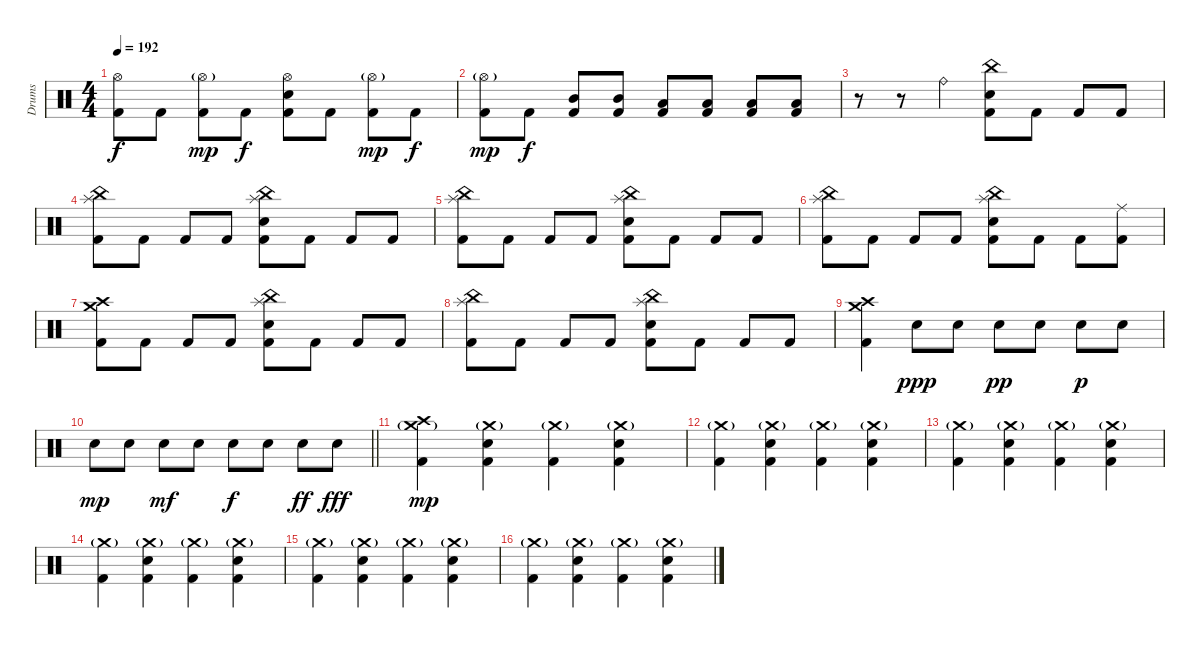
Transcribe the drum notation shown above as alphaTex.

\track ("Drums" "Drums") {instrument percussion}
\staff {score}
\articulation defaults
\ts (4 4)
\tempo 192
\clef neutral
\ks c
("Hi-Hat (open)" "Kick (hit) 2").8{dy f} "Kick (hit) 2".8 ("Hi-Hat (open)"{g} "Kick (hit) 2").8{dy mp} "Kick (hit) 2".8{dy f} ("Hi-Hat (open)" "Electric Snare (hit)" "Kick (hit) 2").8 "Kick (hit) 2".8 ("Hi-Hat (open)"{g} "Kick (hit) 2").8{dy mp} "Kick (hit) 2".8{dy f} |
("Hi-Hat (open)"{g} "Kick (hit) 2").8{dy mp} "Kick (hit) 2".8{dy f} ("Mid Tom (hit)" "Kick (hit) 2").8 ("Mid Tom (hit)" "Kick (hit) 2").8 ("Low Tom (hit)" "Kick (hit) 2").8 ("Low Tom (hit)" "Kick (hit) 2").8 ("Low Floor Tom (hit)" "Kick (hit) 2").8 ("Low Floor Tom (hit)" "Kick (hit) 2").8 |
r.8 r.8 "Ride (bell)".4 ("China (hit)" "Electric Snare (hit)" "Kick (hit) 2").8 "Kick (hit) 2".8 "Kick (hit) 2".8 "Kick (hit) 2".8 |
("China (hit)" "Splash (hit)" "Kick (hit) 2").8 "Kick (hit) 2".8 "Kick (hit) 2".8 "Kick (hit) 2".8 ("China (hit)" "Splash (hit)" "Electric Snare (hit)" "Kick (hit) 2").8 "Kick (hit) 2".8 "Kick (hit) 2".8 "Kick (hit) 2".8 |
("China (hit)" "Splash (hit)" "Kick (hit) 2").8 "Kick (hit) 2".8 "Kick (hit) 2".8 "Kick (hit) 2".8 ("China (hit)" "Splash (hit)" "Electric Snare (hit)" "Kick (hit) 2").8 "Kick (hit) 2".8 "Kick (hit) 2".8 "Kick (hit) 2".8 |
("China (hit)" "Splash (hit)" "Kick (hit) 2").8 "Kick (hit) 2".8 "Kick (hit) 2".8 "Kick (hit) 2".8 ("China (hit)" "Splash (hit)" "Electric Snare (hit)" "Kick (hit) 2").8 "Kick (hit) 2".8 "Kick (hit) 2".8 ("Ride (middle)" "Kick (hit) 2").8 |
("Crash high (hit)" "Crash medium (hit)" "Kick (hit) 2").8 "Kick (hit) 2".8 "Kick (hit) 2".8 "Kick (hit) 2".8 ("China (hit)" "Splash (hit)" "Electric Snare (hit)" "Kick (hit) 2").8 "Kick (hit) 2".8 "Kick (hit) 2".8 "Kick (hit) 2".8 |
("China (hit)" "Splash (hit)" "Kick (hit) 2").8 "Kick (hit) 2".8 "Kick (hit) 2".8 "Kick (hit) 2".8 ("China (hit)" "Splash (hit)" "Electric Snare (hit)" "Kick (hit) 2").8 "Kick (hit) 2".8 "Kick (hit) 2".8 "Kick (hit) 2".8 |
("Crash high (hit)" "Crash medium (hit)" "Kick (hit) 2").4 "Electric Snare (hit)".8{dy ppp} "Electric Snare (hit)".8 "Electric Snare (hit)".8{dy pp} "Electric Snare (hit)".8 "Electric Snare (hit)".8{dy p} "Electric Snare (hit)".8 |
\barLineRight lightlight "Electric Snare (hit)".8{dy mp} "Electric Snare (hit)".8 "Electric Snare (hit)".8{dy mf} "Electric Snare (hit)".8 "Electric Snare (hit)".8{dy f} "Electric Snare (hit)".8 "Electric Snare (hit)".8{dy ff} "Electric Snare (hit)".8{dy fff}
|
("Kick (hit) 2" "Crash medium (hit)"{g} "Crash high (hit)").4{dy mp} ("Kick (hit) 2" "Crash medium (hit)"{g} "Electric Snare (hit)").4 ("Kick (hit) 2" "Crash medium (hit)"{g}).4 ("Kick (hit) 2" "Crash medium (hit)"{g} "Electric Snare (hit)").4 |
("Kick (hit) 2" "Crash medium (hit)"{g}).4 ("Kick (hit) 2" "Crash medium (hit)"{g} "Electric Snare (hit)").4 ("Kick (hit) 2" "Crash medium (hit)"{g}).4 ("Kick (hit) 2" "Crash medium (hit)"{g} "Electric Snare (hit)").4 |
("Kick (hit) 2" "Crash medium (hit)"{g}).4 ("Kick (hit) 2" "Crash medium (hit)"{g} "Electric Snare (hit)").4 ("Kick (hit) 2" "Crash medium (hit)"{g}).4 ("Kick (hit) 2" "Crash medium (hit)"{g} "Electric Snare (hit)").4 |
("Kick (hit) 2" "Crash medium (hit)"{g}).4 ("Kick (hit) 2" "Crash medium (hit)"{g} "Electric Snare (hit)").4 ("Kick (hit) 2" "Crash medium (hit)"{g}).4 ("Kick (hit) 2" "Crash medium (hit)"{g} "Electric Snare (hit)").4 |
("Kick (hit) 2" "Crash medium (hit)"{g}).4 ("Kick (hit) 2" "Crash medium (hit)"{g} "Electric Snare (hit)").4 ("Kick (hit) 2" "Crash medium (hit)"{g}).4 ("Kick (hit) 2" "Crash medium (hit)"{g} "Electric Snare (hit)").4 |
("Kick (hit) 2" "Crash medium (hit)"{g}).4 ("Kick (hit) 2" "Crash medium (hit)"{g} "Electric Snare (hit)").4 ("Kick (hit) 2" "Crash medium (hit)"{g}).4 ("Kick (hit) 2" "Crash medium (hit)"{g} "Electric Snare (hit)").4
